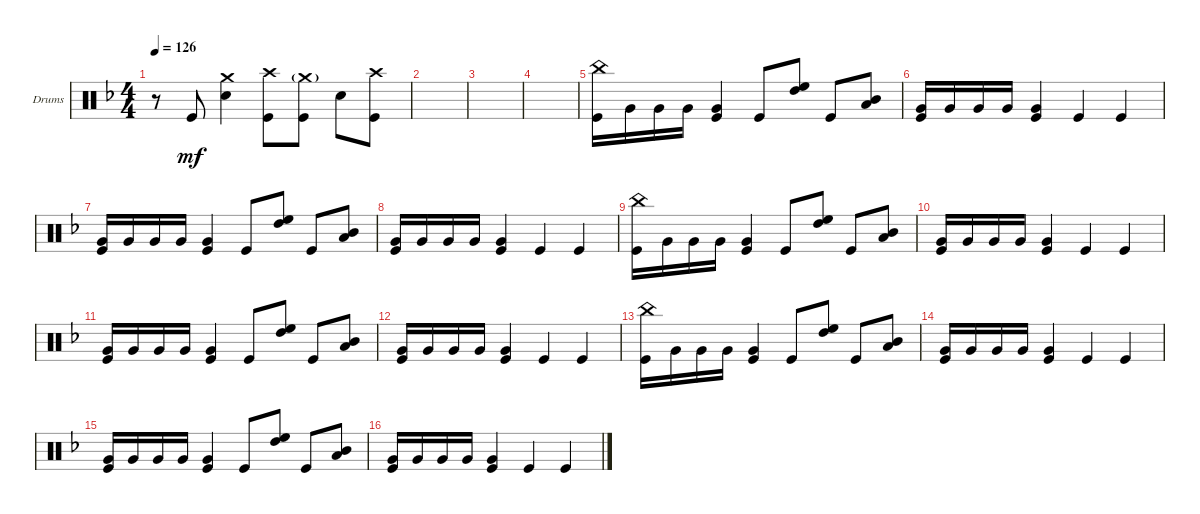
\defaultSystemsLayout 4
\bracketExtendMode groupsimilarinstruments
\firstSystemTrackNameOrientation horizontal
\otherSystemsTrackNameOrientation horizontal
\track ("Drumkit" "Drums") {instrument percussion}
\staff {score}
\articulation defaults
\ts (4 4)
\tempo 126
\clef neutral
\ks f
r.8{dy mf} "Kick (hit)".8 ("Snare (hit) 2" "Crash medium (hit)").4 ("Crash high (hit)" "Kick (hit)").8 ("Kick (hit)" "Crash medium (hit)"{g}).8 "Snare (hit) 2".8 ("Crash high (hit)" "Kick (hit)").8 |
|
|
|
("China (hit)" "Kick (hit)").16 "Very Low Tom (hit)".16 "Very Low Tom (hit)".16 "Very Low Tom (hit)".16 ("Kick (hit)" "Very Low Tom (hit)").4 "Kick (hit)".8 ("High Floor Tom (hit)" "High Tom (hit)").8 "Kick (hit)".8 ("Mid Tom (hit)" "Low Tom (hit)").8 |
("Kick (hit)" "Very Low Tom (hit)").16 "Very Low Tom (hit)".16 "Very Low Tom (hit)".16 "Very Low Tom (hit)".16 ("Very Low Tom (hit)" "Kick (hit)").4 "Kick (hit)".4 "Kick (hit)".4 |
("Kick (hit)" "Very Low Tom (hit)").16 "Very Low Tom (hit)".16 "Very Low Tom (hit)".16 "Very Low Tom (hit)".16 ("Kick (hit)" "Very Low Tom (hit)").4 "Kick (hit)".8 ("High Floor Tom (hit)" "High Tom (hit)").8 "Kick (hit)".8 ("Mid Tom (hit)" "Low Tom (hit)").8 |
("Kick (hit)" "Very Low Tom (hit)").16 "Very Low Tom (hit)".16 "Very Low Tom (hit)".16 "Very Low Tom (hit)".16 ("Very Low Tom (hit)" "Kick (hit)").4 "Kick (hit)".4 "Kick (hit)".4 |
("China (hit)" "Kick (hit)").16 "Very Low Tom (hit)".16 "Very Low Tom (hit)".16 "Very Low Tom (hit)".16 ("Kick (hit)" "Very Low Tom (hit)").4 "Kick (hit)".8 ("High Floor Tom (hit)" "High Tom (hit)").8 "Kick (hit)".8 ("Mid Tom (hit)" "Low Tom (hit)").8 |
("Kick (hit)" "Very Low Tom (hit)").16 "Very Low Tom (hit)".16 "Very Low Tom (hit)".16 "Very Low Tom (hit)".16 ("Very Low Tom (hit)" "Kick (hit)").4 "Kick (hit)".4 "Kick (hit)".4 |
("Kick (hit)" "Very Low Tom (hit)").16 "Very Low Tom (hit)".16 "Very Low Tom (hit)".16 "Very Low Tom (hit)".16 ("Kick (hit)" "Very Low Tom (hit)").4 "Kick (hit)".8 ("High Floor Tom (hit)" "High Tom (hit)").8 "Kick (hit)".8 ("Mid Tom (hit)" "Low Tom (hit)").8 |
("Kick (hit)" "Very Low Tom (hit)").16 "Very Low Tom (hit)".16 "Very Low Tom (hit)".16 "Very Low Tom (hit)".16 ("Very Low Tom (hit)" "Kick (hit)").4 "Kick (hit)".4 "Kick (hit)".4 |
("China (hit)" "Kick (hit)").16 "Very Low Tom (hit)".16 "Very Low Tom (hit)".16 "Very Low Tom (hit)".16 ("Kick (hit)" "Very Low Tom (hit)").4 "Kick (hit)".8 ("High Floor Tom (hit)" "High Tom (hit)").8 "Kick (hit)".8 ("Mid Tom (hit)" "Low Tom (hit)").8 |
("Kick (hit)" "Very Low Tom (hit)").16 "Very Low Tom (hit)".16 "Very Low Tom (hit)".16 "Very Low Tom (hit)".16 ("Very Low Tom (hit)" "Kick (hit)").4 "Kick (hit)".4 "Kick (hit)".4 |
("Kick (hit)" "Very Low Tom (hit)").16 "Very Low Tom (hit)".16 "Very Low Tom (hit)".16 "Very Low Tom (hit)".16 ("Kick (hit)" "Very Low Tom (hit)").4 "Kick (hit)".8 ("High Floor Tom (hit)" "High Tom (hit)").8 "Kick (hit)".8 ("Mid Tom (hit)" "Low Tom (hit)").8 |
("Kick (hit)" "Very Low Tom (hit)").16 "Very Low Tom (hit)".16 "Very Low Tom (hit)".16 "Very Low Tom (hit)".16 ("Very Low Tom (hit)" "Kick (hit)").4 "Kick (hit)".4 "Kick (hit)".4
